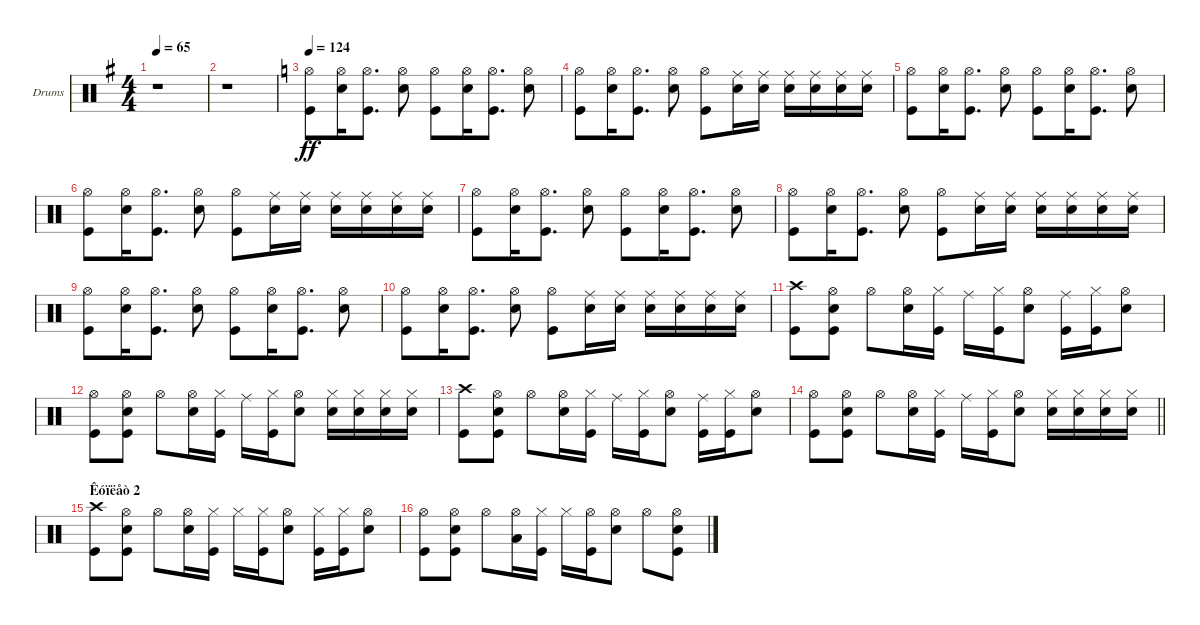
\bracketExtendMode groupsimilarinstruments
\firstSystemTrackNameOrientation horizontal
\otherSystemsTrackNameOrientation horizontal
\track ("Барабаны" "Drums") {instrument percussion}
\staff {score}
\articulation defaults
\ts (4 4)
\tempo 65
\clef neutral
\ks g
r.1{dy ff} |
r.1 |
\tempo 124
\ks c
("Hi-Hat (open)" "Kick (hit)").8 ("Hi-Hat (open)" "Snare (hit) 2").16 ("Hi-Hat (open)" "Kick (hit)").8{d} ("Hi-Hat (open)" "Snare (hit) 2").8 ("Hi-Hat (open)" "Kick (hit)").8 ("Hi-Hat (open)" "Snare (hit) 2").16 ("Hi-Hat (open)" "Kick (hit)").8{d} ("Hi-Hat (open)" "Snare (hit) 2").8 |
("Hi-Hat (open)" "Kick (hit)").8 ("Hi-Hat (open)" "Snare (hit) 2").16 ("Hi-Hat (open)" "Kick (hit)").8{d} ("Hi-Hat (open)" "Snare (hit) 2").8 ("Hi-Hat (open)" "Kick (hit)").8 ("Ride (middle)" "Snare (hit) 2").16 ("Ride (middle)" "Snare (hit) 2").16 ("Ride (middle)" "Snare (hit) 2").16 ("Ride (middle)" "Snare (hit) 2").16 ("Ride (middle)" "Snare (hit) 2").16 ("Ride (middle)" "Snare (hit) 2").16 |
("Hi-Hat (open)" "Kick (hit)").8 ("Hi-Hat (open)" "Snare (hit) 2").16 ("Hi-Hat (open)" "Kick (hit)").8{d} ("Hi-Hat (open)" "Snare (hit) 2").8 ("Hi-Hat (open)" "Kick (hit)").8 ("Hi-Hat (open)" "Snare (hit) 2").16 ("Hi-Hat (open)" "Kick (hit)").8{d} ("Hi-Hat (open)" "Snare (hit) 2").8 |
("Hi-Hat (open)" "Kick (hit)").8 ("Hi-Hat (open)" "Snare (hit) 2").16 ("Hi-Hat (open)" "Kick (hit)").8{d} ("Hi-Hat (open)" "Snare (hit) 2").8 ("Hi-Hat (open)" "Kick (hit)").8 ("Ride (middle)" "Snare (hit) 2").16 ("Ride (middle)" "Snare (hit) 2").16 ("Ride (middle)" "Snare (hit) 2").16 ("Ride (middle)" "Snare (hit) 2").16 ("Ride (middle)" "Snare (hit) 2").16 ("Ride (middle)" "Snare (hit) 2").16 |
("Hi-Hat (open)" "Kick (hit)").8 ("Hi-Hat (open)" "Snare (hit) 2").16 ("Hi-Hat (open)" "Kick (hit)").8{d} ("Hi-Hat (open)" "Snare (hit) 2").8 ("Hi-Hat (open)" "Kick (hit)").8 ("Hi-Hat (open)" "Snare (hit) 2").16 ("Hi-Hat (open)" "Kick (hit)").8{d} ("Hi-Hat (open)" "Snare (hit) 2").8 |
("Hi-Hat (open)" "Kick (hit)").8 ("Hi-Hat (open)" "Snare (hit) 2").16 ("Hi-Hat (open)" "Kick (hit)").8{d} ("Hi-Hat (open)" "Snare (hit) 2").8 ("Hi-Hat (open)" "Kick (hit)").8 ("Ride (middle)" "Snare (hit) 2").16 ("Ride (middle)" "Snare (hit) 2").16 ("Ride (middle)" "Snare (hit) 2").16 ("Ride (middle)" "Snare (hit) 2").16 ("Ride (middle)" "Snare (hit) 2").16 ("Ride (middle)" "Snare (hit) 2").16 |
("Hi-Hat (open)" "Kick (hit)").8 ("Hi-Hat (open)" "Snare (hit) 2").16 ("Hi-Hat (open)" "Kick (hit)").8{d} ("Hi-Hat (open)" "Snare (hit) 2").8 ("Hi-Hat (open)" "Kick (hit)").8 ("Hi-Hat (open)" "Snare (hit) 2").16 ("Hi-Hat (open)" "Kick (hit)").8{d} ("Hi-Hat (open)" "Snare (hit) 2").8 |
("Hi-Hat (open)" "Kick (hit)").8 ("Hi-Hat (open)" "Snare (hit) 2").16 ("Hi-Hat (open)" "Kick (hit)").8{d} ("Hi-Hat (open)" "Snare (hit) 2").8 ("Hi-Hat (open)" "Kick (hit)").8 ("Ride (middle)" "Snare (hit) 2").16 ("Ride (middle)" "Snare (hit) 2").16 ("Ride (middle)" "Snare (hit) 2").16 ("Ride (middle)" "Snare (hit) 2").16 ("Ride (middle)" "Snare (hit) 2").16 ("Ride (middle)" "Snare (hit) 2").16 |
("Crash high (hit)" "Kick (hit)").8 ("Hi-Hat (open)" "Kick (hit)" "Snare (hit) 2").8 "Hi-Hat (open)".8 ("Snare (hit) 2" "Hi-Hat (open)").16 ("Kick (hit)" "Hi-Hat (closed)").16 "Ride (middle)".16 ("Kick (hit)" "Hi-Hat (closed)").16 ("Snare (hit) 2" "Hi-Hat (open)").8 ("Kick (hit)" "Ride (middle)").16 ("Kick (hit)" "Hi-Hat (closed)").16 ("Snare (hit) 2" "Hi-Hat (open)").8 |
("Hi-Hat (open)" "Kick (hit)").8 ("Hi-Hat (open)" "Snare (hit) 2" "Kick (hit)").8 "Hi-Hat (open)".8 ("Snare (hit) 2" "Hi-Hat (open)").16 ("Hi-Hat (closed)" "Kick (hit)").16 "Ride (middle)".16 ("Hi-Hat (closed)" "Kick (hit)").16 ("Hi-Hat (open)" "Snare (hit) 2").8 ("Hi-Hat (closed)" "Snare (hit) 2").16 ("Hi-Hat (closed)" "Snare (hit) 2").16 ("Hi-Hat (closed)" "Snare (hit) 2").16 ("Hi-Hat (closed)" "Snare (hit) 2").16 |
("Crash high (hit)" "Kick (hit)").8 ("Hi-Hat (open)" "Kick (hit)" "Snare (hit) 2").8 "Hi-Hat (open)".8 ("Snare (hit) 2" "Hi-Hat (open)").16 ("Kick (hit)" "Hi-Hat (closed)").16 "Ride (middle)".16 ("Kick (hit)" "Hi-Hat (closed)").16 ("Snare (hit) 2" "Hi-Hat (open)").8 ("Kick (hit)" "Ride (middle)").16 ("Kick (hit)" "Hi-Hat (closed)").16 ("Snare (hit) 2" "Hi-Hat (open)").8 |
\barLineRight lightlight
("Hi-Hat (open)" "Kick (hit)").8 ("Hi-Hat (open)" "Snare (hit) 2" "Kick (hit)").8 "Hi-Hat (open)".8 ("Snare (hit) 2" "Hi-Hat (open)").16 ("Hi-Hat (closed)" "Kick (hit)").16 "Ride (middle)".16 ("Hi-Hat (closed)" "Kick (hit)").16 ("Hi-Hat (open)" "Snare (hit) 2").8 ("Hi-Hat (closed)" "Snare (hit) 2").16 ("Hi-Hat (closed)" "Snare (hit) 2").16 ("Hi-Hat (closed)" "Snare (hit) 2").16 ("Hi-Hat (closed)" "Snare (hit) 2").16 |
\section ("" "Êóïëåò 2")
("Crash high (hit)" "Kick (hit)").8 ("Hi-Hat (open)" "Snare (hit) 2" "Kick (hit)").8 "Hi-Hat (open)".8 ("Snare (hit) 2" "Hi-Hat (open)").16 ("Hi-Hat (closed)" "Kick (hit)").16 "Hi-Hat (closed)".16 ("Hi-Hat (closed)" "Kick (hit)").16 ("Hi-Hat (open)" "Snare (hit) 2").8 ("Hi-Hat (closed)" "Kick (hit)").16 ("Hi-Hat (closed)" "Kick (hit)").16 ("Hi-Hat (open)" "Snare (hit) 2").8 |
("Hi-Hat (open)" "Kick (hit)").8 ("Hi-Hat (open)" "Snare (hit) 2" "Kick (hit)").8 "Hi-Hat (open)".8 ("Hi-Hat (open)" "Low Tom (hit)").16 ("Hi-Hat (closed)" "Kick (hit)").16 "Hi-Hat (closed)".16 ("Hi-Hat (open)" "Kick (hit)").16 ("Hi-Hat (open)" "Snare (hit) 2").8 "Hi-Hat (open)".8 ("Hi-Hat (open)" "Snare (hit) 2" "Kick (hit)").8
